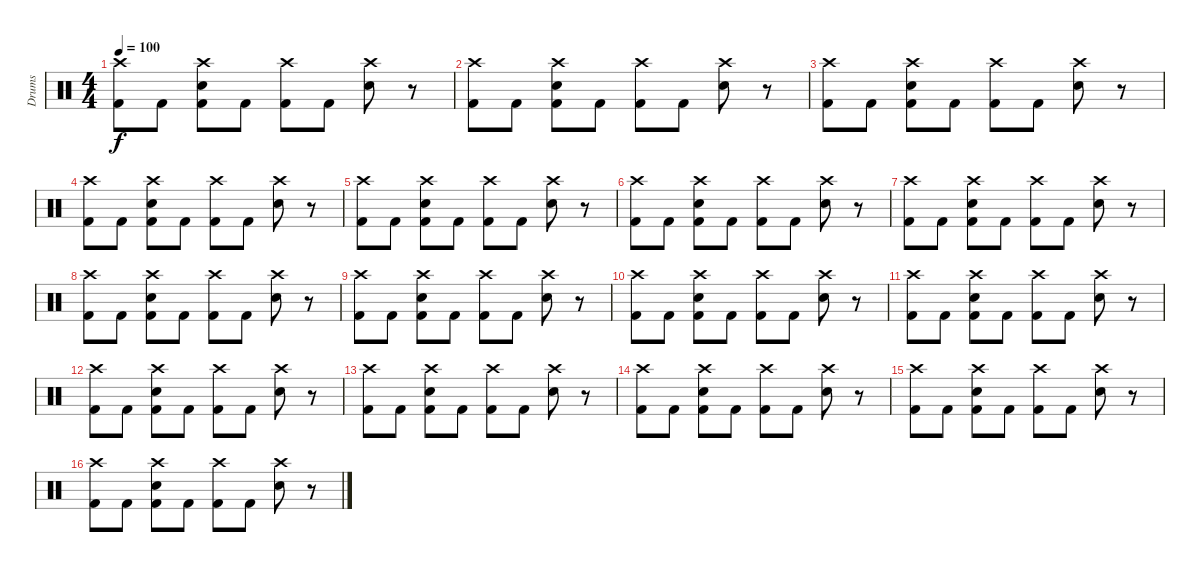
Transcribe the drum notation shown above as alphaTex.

\track ("Drums" "Drums") {instrument percussion}
\staff {score}
\articulation defaults
\ts (4 4)
\tempo 100
\clef neutral
\ks c
("Crash high (hit)" "Kick (hit) 2").8{dy f} "Kick (hit) 2".8 ("Crash high (hit)" "Electric Snare (hit)" "Kick (hit) 2").8 "Kick (hit) 2".8 ("Crash high (hit)" "Kick (hit) 2").8 "Kick (hit) 2".8 ("Crash high (hit)" "Electric Snare (hit)").8 r.8 |
("Crash high (hit)" "Kick (hit) 2").8 "Kick (hit) 2".8 ("Crash high (hit)" "Electric Snare (hit)" "Kick (hit) 2").8 "Kick (hit) 2".8 ("Crash high (hit)" "Kick (hit) 2").8 "Kick (hit) 2".8 ("Crash high (hit)" "Electric Snare (hit)").8 r.8 |
("Crash high (hit)" "Kick (hit) 2").8 "Kick (hit) 2".8 ("Crash high (hit)" "Electric Snare (hit)" "Kick (hit) 2").8 "Kick (hit) 2".8 ("Crash high (hit)" "Kick (hit) 2").8 "Kick (hit) 2".8 ("Crash high (hit)" "Electric Snare (hit)").8 r.8 |
("Crash high (hit)" "Kick (hit) 2").8 "Kick (hit) 2".8 ("Crash high (hit)" "Electric Snare (hit)" "Kick (hit) 2").8 "Kick (hit) 2".8 ("Crash high (hit)" "Kick (hit) 2").8 "Kick (hit) 2".8 ("Crash high (hit)" "Electric Snare (hit)").8 r.8 |
("Crash high (hit)" "Kick (hit) 2").8 "Kick (hit) 2".8 ("Crash high (hit)" "Electric Snare (hit)" "Kick (hit) 2").8 "Kick (hit) 2".8 ("Crash high (hit)" "Kick (hit) 2").8 "Kick (hit) 2".8 ("Crash high (hit)" "Electric Snare (hit)").8 r.8 |
("Crash high (hit)" "Kick (hit) 2").8 "Kick (hit) 2".8 ("Crash high (hit)" "Electric Snare (hit)" "Kick (hit) 2").8 "Kick (hit) 2".8 ("Crash high (hit)" "Kick (hit) 2").8 "Kick (hit) 2".8 ("Crash high (hit)" "Electric Snare (hit)").8 r.8 |
("Crash high (hit)" "Kick (hit) 2").8 "Kick (hit) 2".8 ("Crash high (hit)" "Electric Snare (hit)" "Kick (hit) 2").8 "Kick (hit) 2".8 ("Crash high (hit)" "Kick (hit) 2").8 "Kick (hit) 2".8 ("Crash high (hit)" "Electric Snare (hit)").8 r.8 |
("Crash high (hit)" "Kick (hit) 2").8 "Kick (hit) 2".8 ("Crash high (hit)" "Electric Snare (hit)" "Kick (hit) 2").8 "Kick (hit) 2".8 ("Crash high (hit)" "Kick (hit) 2").8 "Kick (hit) 2".8 ("Crash high (hit)" "Electric Snare (hit)").8 r.8 |
("Crash high (hit)" "Kick (hit) 2").8 "Kick (hit) 2".8 ("Crash high (hit)" "Electric Snare (hit)" "Kick (hit) 2").8 "Kick (hit) 2".8 ("Crash high (hit)" "Kick (hit) 2").8 "Kick (hit) 2".8 ("Crash high (hit)" "Electric Snare (hit)").8 r.8 |
("Crash high (hit)" "Kick (hit) 2").8 "Kick (hit) 2".8 ("Crash high (hit)" "Electric Snare (hit)" "Kick (hit) 2").8 "Kick (hit) 2".8 ("Crash high (hit)" "Kick (hit) 2").8 "Kick (hit) 2".8 ("Crash high (hit)" "Electric Snare (hit)").8 r.8 |
("Crash high (hit)" "Kick (hit) 2").8 "Kick (hit) 2".8 ("Crash high (hit)" "Electric Snare (hit)" "Kick (hit) 2").8 "Kick (hit) 2".8 ("Crash high (hit)" "Kick (hit) 2").8 "Kick (hit) 2".8 ("Crash high (hit)" "Electric Snare (hit)").8 r.8 |
("Crash high (hit)" "Kick (hit) 2").8 "Kick (hit) 2".8 ("Crash high (hit)" "Electric Snare (hit)" "Kick (hit) 2").8 "Kick (hit) 2".8 ("Crash high (hit)" "Kick (hit) 2").8 "Kick (hit) 2".8 ("Crash high (hit)" "Electric Snare (hit)").8 r.8 |
("Crash high (hit)" "Kick (hit) 2").8 "Kick (hit) 2".8 ("Crash high (hit)" "Electric Snare (hit)" "Kick (hit) 2").8 "Kick (hit) 2".8 ("Crash high (hit)" "Kick (hit) 2").8 "Kick (hit) 2".8 ("Crash high (hit)" "Electric Snare (hit)").8 r.8 |
("Crash high (hit)" "Kick (hit) 2").8 "Kick (hit) 2".8 ("Crash high (hit)" "Electric Snare (hit)" "Kick (hit) 2").8 "Kick (hit) 2".8 ("Crash high (hit)" "Kick (hit) 2").8 "Kick (hit) 2".8 ("Crash high (hit)" "Electric Snare (hit)").8 r.8 |
("Crash high (hit)" "Kick (hit) 2").8 "Kick (hit) 2".8 ("Crash high (hit)" "Electric Snare (hit)" "Kick (hit) 2").8 "Kick (hit) 2".8 ("Crash high (hit)" "Kick (hit) 2").8 "Kick (hit) 2".8 ("Crash high (hit)" "Electric Snare (hit)").8 r.8 |
("Crash high (hit)" "Kick (hit) 2").8 "Kick (hit) 2".8 ("Crash high (hit)" "Electric Snare (hit)" "Kick (hit) 2").8 "Kick (hit) 2".8 ("Crash high (hit)" "Kick (hit) 2").8 "Kick (hit) 2".8 ("Crash high (hit)" "Electric Snare (hit)").8 r.8
